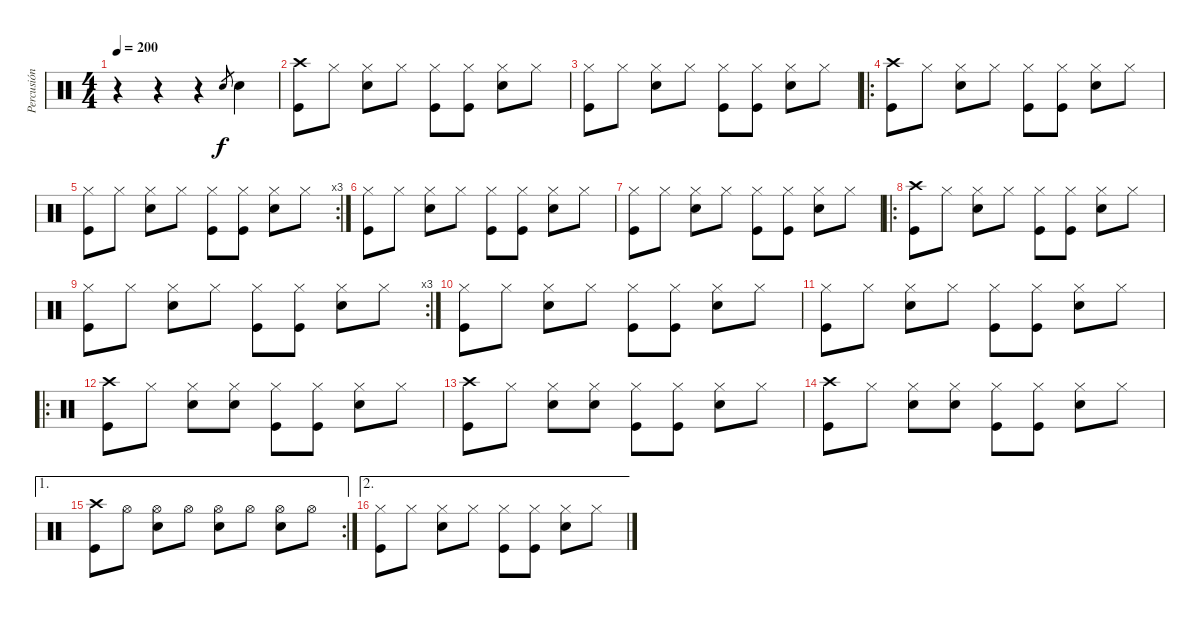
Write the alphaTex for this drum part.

\track ("Percusión" "Percusión") {instrument percussion}
\staff {score}
\articulation defaults
\ts (4 4)
\tempo 200
\clef neutral
\ks c
r.4{dy f} r.4 r.4 "Snare (hit) 2".8{gr} "Snare (hit) 2".4 |
("Crash high (hit)" "Kick (hit)").8 "Hi-Hat (closed)".8 ("Hi-Hat (closed)" "Snare (hit) 2").8 "Hi-Hat (closed)".8 ("Hi-Hat (closed)" "Kick (hit)").8 ("Hi-Hat (closed)" "Kick (hit)").8 ("Hi-Hat (closed)" "Snare (hit) 2").8 "Hi-Hat (closed)".8 |
("Hi-Hat (closed)" "Kick (hit)").8 "Hi-Hat (closed)".8 ("Hi-Hat (closed)" "Snare (hit) 2").8 "Hi-Hat (closed)".8 ("Hi-Hat (closed)" "Kick (hit)").8 ("Hi-Hat (closed)" "Kick (hit)").8 ("Hi-Hat (closed)" "Snare (hit) 2").8 "Hi-Hat (closed)".8 |
\ro
("Crash high (hit)" "Kick (hit)").8 "Hi-Hat (closed)".8 ("Hi-Hat (closed)" "Snare (hit) 2").8 "Hi-Hat (closed)".8 ("Hi-Hat (closed)" "Kick (hit)").8 ("Hi-Hat (closed)" "Kick (hit)").8 ("Hi-Hat (closed)" "Snare (hit) 2").8 "Hi-Hat (closed)".8 |
\rc 3
("Hi-Hat (closed)" "Kick (hit)").8 "Hi-Hat (closed)".8 ("Hi-Hat (closed)" "Snare (hit) 2").8 "Hi-Hat (closed)".8 ("Hi-Hat (closed)" "Kick (hit)").8 ("Hi-Hat (closed)" "Kick (hit)").8 ("Hi-Hat (closed)" "Snare (hit) 2").8 "Hi-Hat (closed)".8 |
("Hi-Hat (closed)" "Kick (hit)").8 "Hi-Hat (closed)".8 ("Hi-Hat (closed)" "Snare (hit) 2").8 "Hi-Hat (closed)".8 ("Hi-Hat (closed)" "Kick (hit)").8 ("Hi-Hat (closed)" "Kick (hit)").8 ("Hi-Hat (closed)" "Snare (hit) 2").8 "Hi-Hat (closed)".8 |
("Hi-Hat (closed)" "Kick (hit)").8 "Hi-Hat (closed)".8 ("Hi-Hat (closed)" "Snare (hit) 2").8 "Hi-Hat (closed)".8 ("Hi-Hat (closed)" "Kick (hit)").8 ("Hi-Hat (closed)" "Kick (hit)").8 ("Hi-Hat (closed)" "Snare (hit) 2").8 "Hi-Hat (closed)".8 |
\ro
("Crash high (hit)" "Kick (hit)").8 "Hi-Hat (closed)".8 ("Hi-Hat (closed)" "Snare (hit) 2").8 "Hi-Hat (closed)".8 ("Hi-Hat (closed)" "Kick (hit)").8 ("Hi-Hat (closed)" "Kick (hit)").8 ("Hi-Hat (closed)" "Snare (hit) 2").8 "Hi-Hat (closed)".8 |
\rc 3
("Hi-Hat (closed)" "Kick (hit)").8 "Hi-Hat (closed)".8 ("Hi-Hat (closed)" "Snare (hit) 2").8 "Hi-Hat (closed)".8 ("Hi-Hat (closed)" "Kick (hit)").8 ("Hi-Hat (closed)" "Kick (hit)").8 ("Hi-Hat (closed)" "Snare (hit) 2").8 "Hi-Hat (closed)".8 |
("Hi-Hat (closed)" "Kick (hit)").8 "Hi-Hat (closed)".8 ("Hi-Hat (closed)" "Snare (hit) 2").8 "Hi-Hat (closed)".8 ("Hi-Hat (closed)" "Kick (hit)").8 ("Hi-Hat (closed)" "Kick (hit)").8 ("Hi-Hat (closed)" "Snare (hit) 2").8 "Hi-Hat (closed)".8 |
("Hi-Hat (closed)" "Kick (hit)").8 "Hi-Hat (closed)".8 ("Hi-Hat (closed)" "Snare (hit) 2").8 "Hi-Hat (closed)".8 ("Hi-Hat (closed)" "Kick (hit)").8 ("Hi-Hat (closed)" "Kick (hit)").8 ("Hi-Hat (closed)" "Snare (hit) 2").8 "Hi-Hat (closed)".8 |
\ro
("Crash high (hit)" "Kick (hit)").8 "Hi-Hat (closed)".8 ("Hi-Hat (closed)" "Snare (hit) 2").8 ("Hi-Hat (closed)" "Snare (hit) 2").8 ("Hi-Hat (closed)" "Kick (hit)").8 ("Hi-Hat (closed)" "Kick (hit)").8 ("Hi-Hat (closed)" "Snare (hit) 2").8 "Hi-Hat (closed)".8 |
("Crash high (hit)" "Kick (hit)").8 "Hi-Hat (closed)".8 ("Hi-Hat (closed)" "Snare (hit) 2").8 ("Hi-Hat (closed)" "Snare (hit) 2").8 ("Hi-Hat (closed)" "Kick (hit)").8 ("Hi-Hat (closed)" "Kick (hit)").8 ("Hi-Hat (closed)" "Snare (hit) 2").8 "Hi-Hat (closed)".8 |
("Crash high (hit)" "Kick (hit)").8 "Hi-Hat (closed)".8 ("Hi-Hat (closed)" "Snare (hit) 2").8 ("Hi-Hat (closed)" "Snare (hit) 2").8 ("Hi-Hat (closed)" "Kick (hit)").8 ("Hi-Hat (closed)" "Kick (hit)").8 ("Hi-Hat (closed)" "Snare (hit) 2").8 "Hi-Hat (closed)".8 |
\ae 1
\rc 2
("Crash high (hit)" "Kick (hit)").8 "Hi-Hat (open)".8 ("Hi-Hat (open)" "Snare (hit) 2").8 "Hi-Hat (open)".8 ("Hi-Hat (open)" "Snare (hit) 2").8 "Hi-Hat (open)".8 ("Hi-Hat (open)" "Snare (hit) 2").8 "Hi-Hat (open)".8 |
\ae 2
("Hi-Hat (closed)" "Kick (hit)").8 "Hi-Hat (closed)".8 ("Hi-Hat (closed)" "Snare (hit) 2").8 "Hi-Hat (closed)".8 ("Hi-Hat (closed)" "Kick (hit)").8 ("Hi-Hat (closed)" "Kick (hit)").8 ("Hi-Hat (closed)" "Snare (hit) 2").8 "Hi-Hat (closed)".8
